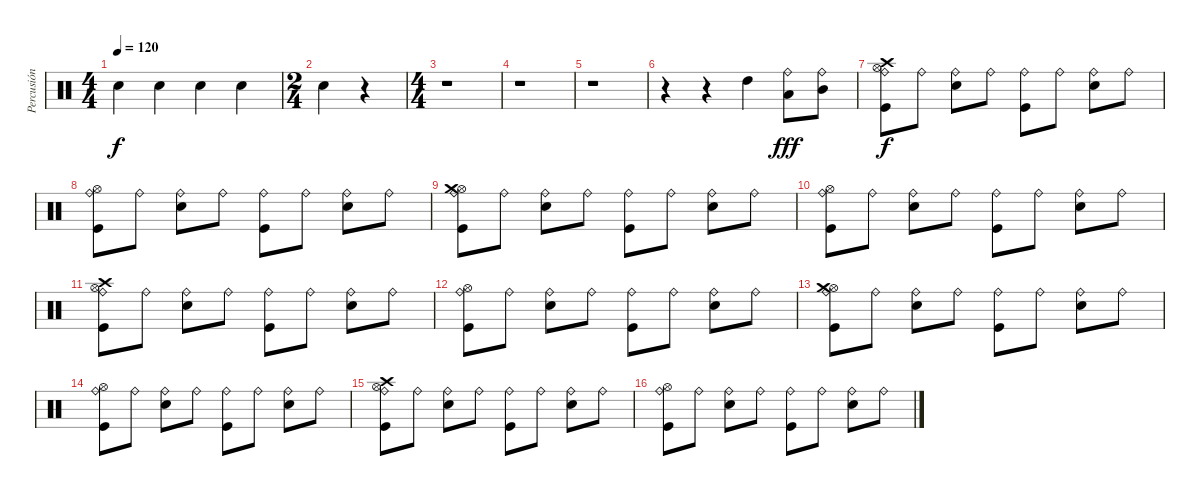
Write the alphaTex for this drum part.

\track ("Percusión" "Percusión") {instrument percussion}
\staff {score}
\articulation defaults
\ts (4 4)
\tempo 120
\clef neutral
\ks c "Snare (hit) 2".4{dy f} "Snare (hit) 2".4 "Snare (hit) 2".4 "Snare (hit) 2".4
|
\ts (2 4)
"Snare (hit) 2".4 r.4 |
\ts (4 4)
r.1 |
r.1 |
r.1 |
r.4 r.4 "High Tom (hit)".4 ("Low Tom (hit)" "Ride (bell)").8{dy fff} ("Mid Tom (hit)" "Ride (bell)").8 |
("Ride (bell)" "Hi-Hat (open)" "Crash high (hit)" "Kick (hit)").8{dy f} "Ride (bell)".8 ("Ride (bell)" "Snare (hit) 2").8 "Ride (bell)".8 ("Ride (bell)" "Kick (hit)").8 "Ride (bell)".8 ("Ride (bell)" "Snare (hit) 2").8 "Ride (bell)".8 |
("Ride (bell)" "Hi-Hat (open)" "Kick (hit)").8 "Ride (bell)".8 ("Ride (bell)" "Snare (hit) 2").8 "Ride (bell)".8 ("Ride (bell)" "Kick (hit)").8 "Ride (bell)".8 ("Ride (bell)" "Snare (hit) 2").8 "Ride (bell)".8 |
("Ride (bell)" "Hi-Hat (open)" "Crash medium (hit)" "Kick (hit)").8 "Ride (bell)".8 ("Ride (bell)" "Snare (hit) 2").8 "Ride (bell)".8 ("Ride (bell)" "Kick (hit)").8 "Ride (bell)".8 ("Ride (bell)" "Snare (hit) 2").8 "Ride (bell)".8 |
("Ride (bell)" "Hi-Hat (open)" "Kick (hit)").8 "Ride (bell)".8 ("Ride (bell)" "Snare (hit) 2").8 "Ride (bell)".8 ("Ride (bell)" "Kick (hit)").8 "Ride (bell)".8 ("Ride (bell)" "Snare (hit) 2").8 "Ride (bell)".8 |
("Ride (bell)" "Hi-Hat (open)" "Crash high (hit)" "Kick (hit)").8 "Ride (bell)".8 ("Ride (bell)" "Snare (hit) 2").8 "Ride (bell)".8 ("Ride (bell)" "Kick (hit)").8 "Ride (bell)".8 ("Ride (bell)" "Snare (hit) 2").8 "Ride (bell)".8 |
("Ride (bell)" "Hi-Hat (open)" "Kick (hit)").8 "Ride (bell)".8 ("Ride (bell)" "Snare (hit) 2").8 "Ride (bell)".8 ("Ride (bell)" "Kick (hit)").8 "Ride (bell)".8 ("Ride (bell)" "Snare (hit) 2").8 "Ride (bell)".8 |
("Ride (bell)" "Hi-Hat (open)" "Crash medium (hit)" "Kick (hit)").8 "Ride (bell)".8 ("Ride (bell)" "Snare (hit) 2").8 "Ride (bell)".8 ("Ride (bell)" "Kick (hit)").8 "Ride (bell)".8 ("Ride (bell)" "Snare (hit) 2").8 "Ride (bell)".8 |
("Ride (bell)" "Hi-Hat (open)" "Kick (hit)").8 "Ride (bell)".8 ("Ride (bell)" "Snare (hit) 2").8 "Ride (bell)".8 ("Ride (bell)" "Kick (hit)").8 "Ride (bell)".8 ("Ride (bell)" "Snare (hit) 2").8 "Ride (bell)".8 |
("Ride (bell)" "Hi-Hat (open)" "Crash high (hit)" "Kick (hit)").8 "Ride (bell)".8 ("Ride (bell)" "Snare (hit) 2").8 "Ride (bell)".8 ("Ride (bell)" "Kick (hit)").8 "Ride (bell)".8 ("Ride (bell)" "Snare (hit) 2").8 "Ride (bell)".8 |
("Ride (bell)" "Hi-Hat (open)" "Kick (hit)").8 "Ride (bell)".8 ("Ride (bell)" "Snare (hit) 2").8 "Ride (bell)".8 ("Ride (bell)" "Kick (hit)").8 "Ride (bell)".8 ("Ride (bell)" "Snare (hit) 2").8 "Ride (bell)".8
